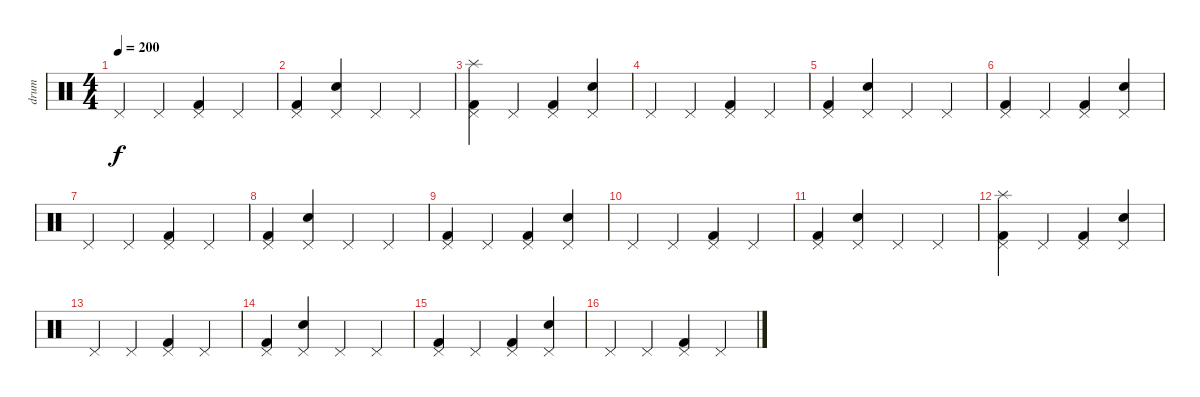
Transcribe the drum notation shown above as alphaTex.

\track ("drum" "drum") {instrument percussion}
\staff {score}
\articulation defaults
\ts (4 4)
\tempo 200
\clef neutral
\ks c "Pedal Hi-Hat (hit)".4{dy f} "Pedal Hi-Hat (hit)".4
("Pedal Hi-Hat (hit)" "Kick (hit) 2").4 "Pedal Hi-Hat (hit)".4 |
("Pedal Hi-Hat (hit)" "Kick (hit) 2").4 ("Pedal Hi-Hat (hit)" "Electric Snare (hit)").4 "Pedal Hi-Hat (hit)".4 "Pedal Hi-Hat (hit)".4 |
("Pedal Hi-Hat (hit)" "Splash (hit)" "Kick (hit) 2").4 "Pedal Hi-Hat (hit)".4 ("Pedal Hi-Hat (hit)" "Kick (hit) 2").4 ("Pedal Hi-Hat (hit)" "Electric Snare (hit)").4 |
"Pedal Hi-Hat (hit)".4 "Pedal Hi-Hat (hit)".4 ("Pedal Hi-Hat (hit)" "Kick (hit) 2").4 "Pedal Hi-Hat (hit)".4 |
("Pedal Hi-Hat (hit)" "Kick (hit) 2").4 ("Pedal Hi-Hat (hit)" "Electric Snare (hit)").4 "Pedal Hi-Hat (hit)".4 "Pedal Hi-Hat (hit)".4 |
("Pedal Hi-Hat (hit)" "Kick (hit) 2").4 "Pedal Hi-Hat (hit)".4 ("Pedal Hi-Hat (hit)" "Kick (hit) 2").4 ("Pedal Hi-Hat (hit)" "Electric Snare (hit)").4 |
"Pedal Hi-Hat (hit)".4 "Pedal Hi-Hat (hit)".4 ("Pedal Hi-Hat (hit)" "Kick (hit) 2").4 "Pedal Hi-Hat (hit)".4 |
("Pedal Hi-Hat (hit)" "Kick (hit) 2").4 ("Pedal Hi-Hat (hit)" "Electric Snare (hit)").4 "Pedal Hi-Hat (hit)".4 "Pedal Hi-Hat (hit)".4 |
("Pedal Hi-Hat (hit)" "Kick (hit) 2").4 "Pedal Hi-Hat (hit)".4 ("Pedal Hi-Hat (hit)" "Kick (hit) 2").4 ("Pedal Hi-Hat (hit)" "Electric Snare (hit)").4 |
"Pedal Hi-Hat (hit)".4 "Pedal Hi-Hat (hit)".4 ("Pedal Hi-Hat (hit)" "Kick (hit) 2").4 "Pedal Hi-Hat (hit)".4 |
("Pedal Hi-Hat (hit)" "Kick (hit) 2").4 ("Pedal Hi-Hat (hit)" "Electric Snare (hit)").4 "Pedal Hi-Hat (hit)".4 "Pedal Hi-Hat (hit)".4 |
("Pedal Hi-Hat (hit)" "Splash (hit)" "Kick (hit) 2").4 "Pedal Hi-Hat (hit)".4 ("Pedal Hi-Hat (hit)" "Kick (hit) 2").4 ("Pedal Hi-Hat (hit)" "Electric Snare (hit)").4 |
"Pedal Hi-Hat (hit)".4 "Pedal Hi-Hat (hit)".4 ("Pedal Hi-Hat (hit)" "Kick (hit) 2").4 "Pedal Hi-Hat (hit)".4 |
("Pedal Hi-Hat (hit)" "Kick (hit) 2").4 ("Pedal Hi-Hat (hit)" "Electric Snare (hit)").4 "Pedal Hi-Hat (hit)".4 "Pedal Hi-Hat (hit)".4 |
("Pedal Hi-Hat (hit)" "Kick (hit) 2").4 "Pedal Hi-Hat (hit)".4 ("Pedal Hi-Hat (hit)" "Kick (hit) 2").4 ("Pedal Hi-Hat (hit)" "Electric Snare (hit)").4 |
"Pedal Hi-Hat (hit)".4 "Pedal Hi-Hat (hit)".4 ("Pedal Hi-Hat (hit)" "Kick (hit) 2").4 "Pedal Hi-Hat (hit)".4
